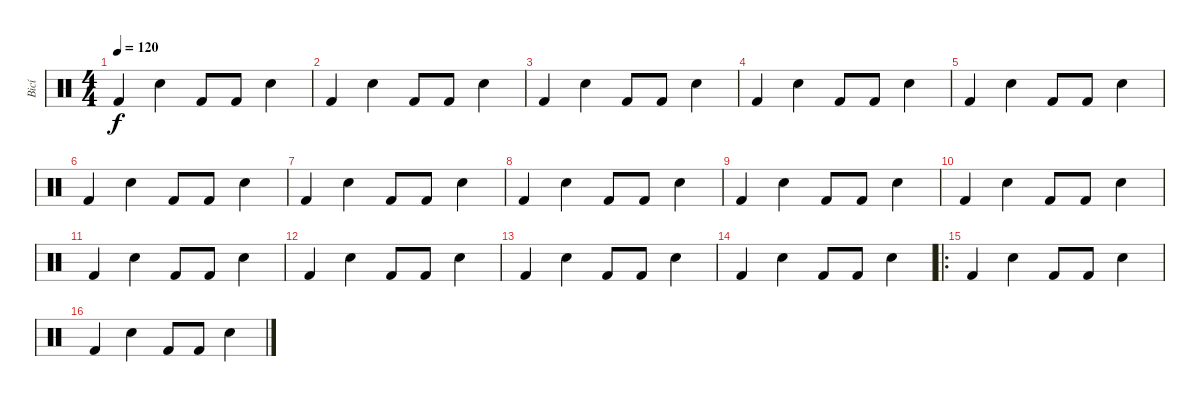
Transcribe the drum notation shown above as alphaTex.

\track ("Bicí" "Bicí") {instrument percussion}
\staff {score}
\articulation defaults
\ts (4 4)
\tempo 120
\clef neutral
\ks c "Kick (hit) 2".4{dy f} "Electric Snare (hit)".4 "Kick (hit) 2".8 "Kick (hit) 2".8 "Electric Snare (hit)".4
|
"Kick (hit) 2".4 "Electric Snare (hit)".4 "Kick (hit) 2".8 "Kick (hit) 2".8 "Electric Snare (hit)".4 |
"Kick (hit) 2".4 "Electric Snare (hit)".4 "Kick (hit) 2".8 "Kick (hit) 2".8 "Electric Snare (hit)".4 |
"Kick (hit) 2".4 "Electric Snare (hit)".4 "Kick (hit) 2".8 "Kick (hit) 2".8 "Electric Snare (hit)".4 |
"Kick (hit) 2".4 "Electric Snare (hit)".4 "Kick (hit) 2".8 "Kick (hit) 2".8 "Electric Snare (hit)".4 |
"Kick (hit) 2".4 "Electric Snare (hit)".4 "Kick (hit) 2".8 "Kick (hit) 2".8 "Electric Snare (hit)".4 |
"Kick (hit) 2".4 "Electric Snare (hit)".4 "Kick (hit) 2".8 "Kick (hit) 2".8 "Electric Snare (hit)".4 |
"Kick (hit) 2".4 "Electric Snare (hit)".4 "Kick (hit) 2".8 "Kick (hit) 2".8 "Electric Snare (hit)".4 |
"Kick (hit) 2".4 "Electric Snare (hit)".4 "Kick (hit) 2".8 "Kick (hit) 2".8 "Electric Snare (hit)".4 |
"Kick (hit) 2".4 "Electric Snare (hit)".4 "Kick (hit) 2".8 "Kick (hit) 2".8 "Electric Snare (hit)".4 |
"Kick (hit) 2".4 "Electric Snare (hit)".4 "Kick (hit) 2".8 "Kick (hit) 2".8 "Electric Snare (hit)".4 |
"Kick (hit) 2".4 "Electric Snare (hit)".4 "Kick (hit) 2".8 "Kick (hit) 2".8 "Electric Snare (hit)".4 |
"Kick (hit) 2".4 "Electric Snare (hit)".4 "Kick (hit) 2".8 "Kick (hit) 2".8 "Electric Snare (hit)".4 |
"Kick (hit) 2".4 "Electric Snare (hit)".4 "Kick (hit) 2".8 "Kick (hit) 2".8 "Electric Snare (hit)".4 |
\ro "Kick (hit) 2".4 "Electric Snare (hit)".4 "Kick (hit) 2".8 "Kick (hit) 2".8 "Electric Snare (hit)".4
|
"Kick (hit) 2".4 "Electric Snare (hit)".4 "Kick (hit) 2".8 "Kick (hit) 2".8 "Electric Snare (hit)".4
